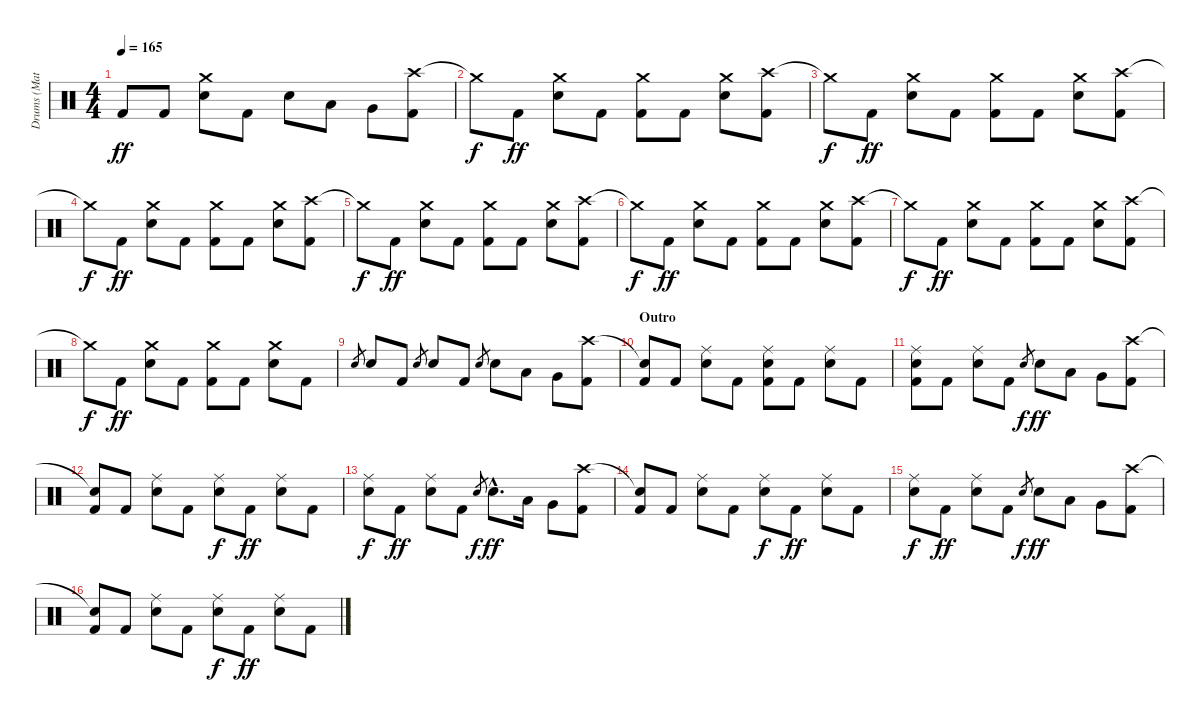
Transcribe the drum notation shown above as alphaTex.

\track ("Drums (Matt)" "Drums (Mat") {instrument percussion}
\staff {score}
\articulation defaults
\ts (4 4)
\tempo 165
\clef neutral
\ks c "Kick (hit) 2".8{dy ff} "Kick (hit) 2".8
("Crash medium (hit)" "Snare (hit) 2").8 "Kick (hit) 2".8 "Snare (hit) 2".8 "Low Tom (hit)".8 "Very Low Tom (hit)".8 ("Crash high (hit)" "Kick (hit) 2").8 |
"Crash medium (hit)"{t}.8{dy f} "Kick (hit) 2".8{dy ff} ("Crash medium (hit)" "Snare (hit) 2").8 "Kick (hit) 2".8 ("Crash medium (hit)" "Kick (hit) 2").8 "Kick (hit) 2".8 ("Crash medium (hit)" "Snare (hit) 2").8 ("Crash high (hit)" "Kick (hit) 2").8 |
"Crash medium (hit)"{t}.8{dy f} "Kick (hit) 2".8{dy ff} ("Crash medium (hit)" "Snare (hit) 2").8 "Kick (hit) 2".8 ("Crash medium (hit)" "Kick (hit) 2").8 "Kick (hit) 2".8 ("Crash medium (hit)" "Snare (hit) 2").8 ("Crash high (hit)" "Kick (hit) 2").8 |
"Crash medium (hit)"{t}.8{dy f} "Kick (hit) 2".8{dy ff} ("Crash medium (hit)" "Snare (hit) 2").8 "Kick (hit) 2".8 ("Crash medium (hit)" "Kick (hit) 2").8 "Kick (hit) 2".8 ("Crash medium (hit)" "Snare (hit) 2").8 ("Crash high (hit)" "Kick (hit) 2").8 |
"Crash medium (hit)"{t}.8{dy f} "Kick (hit) 2".8{dy ff} ("Crash medium (hit)" "Snare (hit) 2").8 "Kick (hit) 2".8 ("Crash medium (hit)" "Kick (hit) 2").8 "Kick (hit) 2".8 ("Crash medium (hit)" "Snare (hit) 2").8 ("Crash high (hit)" "Kick (hit) 2").8 |
"Crash medium (hit)"{t}.8{dy f} "Kick (hit) 2".8{dy ff} ("Crash medium (hit)" "Snare (hit) 2").8 "Kick (hit) 2".8 ("Crash medium (hit)" "Kick (hit) 2").8 "Kick (hit) 2".8 ("Crash medium (hit)" "Snare (hit) 2").8 ("Crash high (hit)" "Kick (hit) 2").8 |
"Crash medium (hit)"{t}.8{dy f} "Kick (hit) 2".8{dy ff} ("Crash medium (hit)" "Snare (hit) 2").8 "Kick (hit) 2".8 ("Crash medium (hit)" "Kick (hit) 2").8 "Kick (hit) 2".8 ("Crash medium (hit)" "Snare (hit) 2").8 ("Crash high (hit)" "Kick (hit) 2").8 |
"Crash medium (hit)"{t}.8{dy f} "Kick (hit) 2".8{dy ff} ("Crash medium (hit)" "Snare (hit) 2").8 "Kick (hit) 2".8 ("Crash medium (hit)" "Kick (hit) 2").8 "Kick (hit) 2".8 ("Crash medium (hit)" "Snare (hit) 2").8 "Kick (hit) 2".8 |
"Snare (hit) 2".8{gr} "Snare (hit) 2".8 "Kick (hit) 2".8 "Snare (hit) 2".8{gr} "Snare (hit) 2".8 "Kick (hit) 2".8 "Snare (hit) 2".8{gr} "Snare (hit) 2".8 "Low Tom (hit)".8 "Very Low Tom (hit)".8 ("Crash high (hit)" "Kick (hit) 2").8 |
\section ("" "Outro")
("Snare (hit)"{t} "Kick (hit) 2").8 "Kick (hit) 2".8 ("Ride (middle)" "Snare (hit) 2").8 "Kick (hit) 2".8 ("Ride (middle)" "Snare (hit) 2" "Kick (hit) 2").8 "Kick (hit) 2".8 ("Ride (middle)" "Snare (hit) 2").8 "Kick (hit) 2".8 |
("Ride (middle)" "Snare (hit) 2" "Kick (hit) 2").8 "Kick (hit) 2".8 ("Ride (middle)" "Snare (hit) 2").8 "Kick (hit) 2".8 "Snare (hit) 2".8{gr dy f} "Snare (hit) 2".8{dy ff} "Low Tom (hit)".8 "Very Low Tom (hit)".8 ("Crash high (hit)" "Kick (hit) 2").8 |
("Snare (hit)"{t} "Kick (hit) 2").8 "Kick (hit) 2".8 ("Ride (middle)" "Snare (hit) 2").8 "Kick (hit) 2".8 ("Ride (middle)" "Snare (hit) 2").8{dy f} "Kick (hit) 2".8{dy ff} ("Ride (middle)" "Snare (hit) 2").8 "Kick (hit) 2".8 |
("Ride (middle)" "Snare (hit) 2").8{dy f} "Kick (hit) 2".8{dy ff} ("Ride (middle)" "Snare (hit) 2").8 "Kick (hit) 2".8 "Snare (hit) 2".8{gr dy f} "Snare (hit) 2"{hac}.8{d dy ff} "Low Tom (hit)".16 "Very Low Tom (hit)".8 ("Crash high (hit)" "Kick (hit) 2").8 |
("Snare (hit)"{t} "Kick (hit) 2").8 "Kick (hit) 2".8 ("Ride (middle)" "Snare (hit) 2").8 "Kick (hit) 2".8 ("Ride (middle)" "Snare (hit) 2").8{dy f} "Kick (hit) 2".8{dy ff} ("Ride (middle)" "Snare (hit) 2").8 "Kick (hit) 2".8 |
("Ride (middle)" "Snare (hit) 2").8{dy f} "Kick (hit) 2".8{dy ff} ("Ride (middle)" "Snare (hit) 2").8 "Kick (hit) 2".8 "Snare (hit) 2".8{gr dy f} "Snare (hit) 2".8{dy ff} "Low Tom (hit)".8 "Very Low Tom (hit)".8 ("Crash high (hit)" "Kick (hit) 2").8 |
("Snare (hit)"{t} "Kick (hit) 2").8 "Kick (hit) 2".8 ("Ride (middle)" "Snare (hit) 2").8 "Kick (hit) 2".8 ("Ride (middle)" "Snare (hit) 2").8{dy f} "Kick (hit) 2".8{dy ff} ("Ride (middle)" "Snare (hit) 2").8 "Kick (hit) 2".8
